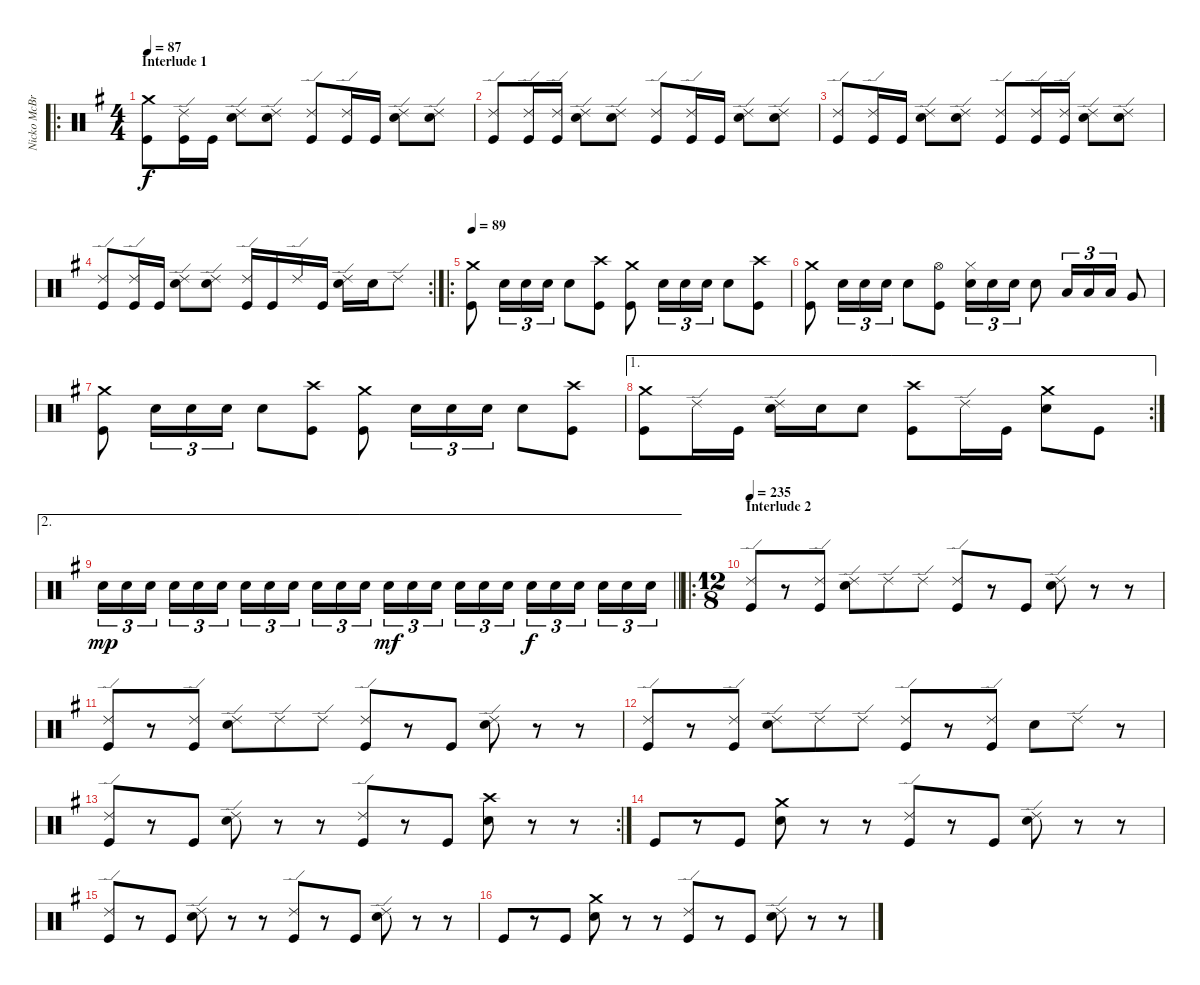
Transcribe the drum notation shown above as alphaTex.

\track ("Nicko McBrain (Drums)" "Nicko McBr") {instrument percussion}
\staff {score}
\articulation defaults
\ro
\ts (4 4)
\section ("" "Interlude 1")
\tempo 87
\clef neutral
\ks eminor
("Crash medium (hit)" "Kick (hit)").8{dy f} ("Ride (edge) 2" "Kick (hit)").16 "Kick (hit)".16 ("Ride (edge) 2" "Snare (hit) 2").8 ("Ride (edge) 2" "Snare (hit) 2").8 ("Ride (edge) 2" "Kick (hit)").8 ("Ride (edge) 2" "Kick (hit)").16 "Kick (hit)".16 ("Ride (edge) 2" "Snare (hit) 2").8 ("Ride (edge) 2" "Snare (hit) 2").8 |
("Ride (edge) 2" "Kick (hit)").8 ("Ride (edge) 2" "Kick (hit)").16 ("Ride (edge) 2" "Kick (hit)").16 ("Ride (edge) 2" "Snare (hit) 2").8 ("Ride (edge) 2" "Snare (hit) 2").8 ("Ride (edge) 2" "Kick (hit)").8 ("Ride (edge) 2" "Kick (hit)").16 "Kick (hit)".16 ("Ride (edge) 2" "Snare (hit) 2").8 ("Ride (edge) 2" "Snare (hit) 2").8 |
("Ride (edge) 2" "Kick (hit)").8 ("Ride (edge) 2" "Kick (hit)").16 "Kick (hit)".16 ("Ride (edge) 2" "Snare (hit) 2").8 ("Ride (edge) 2" "Snare (hit) 2").8 ("Ride (edge) 2" "Kick (hit)").8 ("Ride (edge) 2" "Kick (hit)").16 ("Ride (edge) 2" "Kick (hit)").16 ("Ride (edge) 2" "Snare (hit) 2").8 ("Ride (edge) 2" "Snare (hit) 2").8 |
\rc 2
("Ride (edge) 2" "Kick (hit)").8 ("Ride (edge) 2" "Kick (hit)").16 "Kick (hit)".16 ("Ride (edge) 2" "Snare (hit) 2").8 ("Ride (edge) 2" "Snare (hit) 2").8 ("Ride (edge) 2" "Kick (hit)").16 "Kick (hit)".16 "Ride (edge) 2".16 "Kick (hit)".16 ("Ride (edge) 2" "Snare (hit) 2").16 "Snare (hit) 2".16 "Ride (edge) 2".8 |
\ro
\tempo 89
("Crash medium (hit)" "Kick (hit)").8 "Snare (hit) 2".16{tu (3 2)} "Snare (hit) 2".16{tu (3 2)} "Snare (hit) 2".16{tu (3 2)} "Snare (hit) 2".8 ("Crash high (hit)" "Kick (hit)").8 ("Crash medium (hit)" "Kick (hit)").8 "Snare (hit) 2".16{tu (3 2)} "Snare (hit) 2".16{tu (3 2)} "Snare (hit) 2".16{tu (3 2)} "Snare (hit) 2".8 ("Crash high (hit)" "Kick (hit)").8 |
("Crash medium (hit)" "Kick (hit)").8 "Snare (hit) 2".16{tu (3 2)} "Snare (hit) 2".16{tu (3 2)} "Snare (hit) 2".16{tu (3 2)} "Snare (hit) 2".8 ("Hi-Hat (open)" "Kick (hit)").8 ("Hi-Hat (closed)" "Snare (hit) 2").16{tu (3 2)} "Snare (hit) 2".16{tu (3 2)} "Snare (hit) 2".16{tu (3 2)} "Snare (hit) 2".8 "Low Tom (hit)".16{tu (3 2)} "Low Tom (hit)".16{tu (3 2)} "Low Tom (hit)".16{tu (3 2)} "Very Low Tom (hit)".8 |
("Crash medium (hit)" "Kick (hit)").8 "Snare (hit) 2".16{tu (3 2)} "Snare (hit) 2".16{tu (3 2)} "Snare (hit) 2".16{tu (3 2)} "Snare (hit) 2".8 ("Crash high (hit)" "Kick (hit)").8 ("Crash medium (hit)" "Kick (hit)").8 "Snare (hit) 2".16{tu (3 2)} "Snare (hit) 2".16{tu (3 2)} "Snare (hit) 2".16{tu (3 2)} "Snare (hit) 2".8 ("Crash high (hit)" "Kick (hit)").8 |
\ae 1
\rc 2
("Crash medium (hit)" "Kick (hit)").8 "Ride (edge) 2".16 "Kick (hit)".16 ("Ride (edge) 2" "Snare (hit) 2").16 "Snare (hit) 2".16 "Snare (hit) 2".8 ("Crash high (hit)" "Kick (hit)").8 "Ride (edge) 2".16 "Kick (hit)".16 ("Crash medium (hit)" "Snare (hit) 2").8 "Kick (hit)".8 |
\ae 2
\barLineRight lightlight "Snare (hit) 2".16{tu (3 2) dy mp} "Snare (hit) 2".16{tu (3 2)} "Snare (hit) 2".16{tu (3 2) beam splitsecondary} "Snare (hit) 2".16{tu (3 2)} "Snare (hit) 2".16{tu (3 2)} "Snare (hit) 2".16{tu (3 2)} "Snare (hit) 2".16{tu (3 2)} "Snare (hit) 2".16{tu (3 2)} "Snare (hit) 2".16{tu (3 2) beam splitsecondary} "Snare (hit) 2".16{tu (3 2)} "Snare (hit) 2".16{tu (3 2)} "Snare (hit) 2".16{tu (3 2)} "Snare (hit) 2".16{tu (3 2) dy mf} "Snare (hit) 2".16{tu (3 2)} "Snare (hit) 2".16{tu (3 2) beam splitsecondary} "Snare (hit) 2".16{tu (3 2)} "Snare (hit) 2".16{tu (3 2)} "Snare (hit) 2".16{tu (3 2)} "Snare (hit) 2".16{tu (3 2) dy f} "Snare (hit) 2".16{tu (3 2)} "Snare (hit) 2".16{tu (3 2) beam splitsecondary} "Snare (hit) 2".16{tu (3 2)} "Snare (hit) 2".16{tu (3 2)} "Snare (hit) 2".16{tu (3 2)}
|
\ro
\ts (12 8)
\section ("" "Interlude 2")
\tempo 235
("Ride (edge) 2" "Kick (hit)").8 r.8 ("Ride (edge) 2" "Kick (hit)").8 ("Ride (edge) 2" "Snare (hit) 2").8 "Ride (edge) 2".8 "Ride (edge) 2".8 ("Ride (edge) 2" "Kick (hit)").8 r.8 "Kick (hit)".8 ("Ride (edge) 2" "Snare (hit) 2").8 r.8 r.8 |
("Ride (edge) 2" "Kick (hit)").8 r.8 ("Ride (edge) 2" "Kick (hit)").8 ("Ride (edge) 2" "Snare (hit) 2").8 "Ride (edge) 2".8 "Ride (edge) 2".8 ("Ride (edge) 2" "Kick (hit)").8 r.8 "Kick (hit)".8 ("Ride (edge) 2" "Snare (hit) 2").8 r.8 r.8 |
("Ride (edge) 2" "Kick (hit)").8 r.8 ("Ride (edge) 2" "Kick (hit)").8 ("Ride (edge) 2" "Snare (hit) 2").8 "Ride (edge) 2".8 "Ride (edge) 2".8 ("Ride (edge) 2" "Kick (hit)").8 r.8 ("Ride (edge) 2" "Kick (hit)").8 "Snare (hit) 2".8 "Ride (edge) 2".8 r.8 |
\rc 2
("Ride (edge) 2" "Kick (hit)").8 r.8 "Kick (hit)".8 ("Ride (edge) 2" "Snare (hit) 2").8 r.8 r.8 ("Ride (edge) 2" "Kick (hit)").8 r.8 "Kick (hit)".8 ("Crash high (hit)" "Snare (hit) 2").8 r.8 r.8 |
"Kick (hit)".8 r.8 "Kick (hit)".8 ("Crash medium (hit)" "Snare (hit) 2").8 r.8 r.8 ("Ride (edge) 2" "Kick (hit)").8 r.8 "Kick (hit)".8 ("Ride (edge) 2" "Snare (hit) 2").8 r.8 r.8 |
("Ride (edge) 2" "Kick (hit)").8 r.8 "Kick (hit)".8 ("Ride (edge) 2" "Snare (hit) 2").8 r.8 r.8 ("Ride (edge) 2" "Kick (hit)").8 r.8 "Kick (hit)".8 ("Ride (edge) 2" "Snare (hit) 2").8 r.8 r.8 |
"Kick (hit)".8 r.8 "Kick (hit)".8 ("Crash medium (hit)" "Snare (hit) 2").8 r.8 r.8 ("Ride (edge) 2" "Kick (hit)").8 r.8 "Kick (hit)".8 ("Ride (edge) 2" "Snare (hit) 2").8 r.8 r.8
